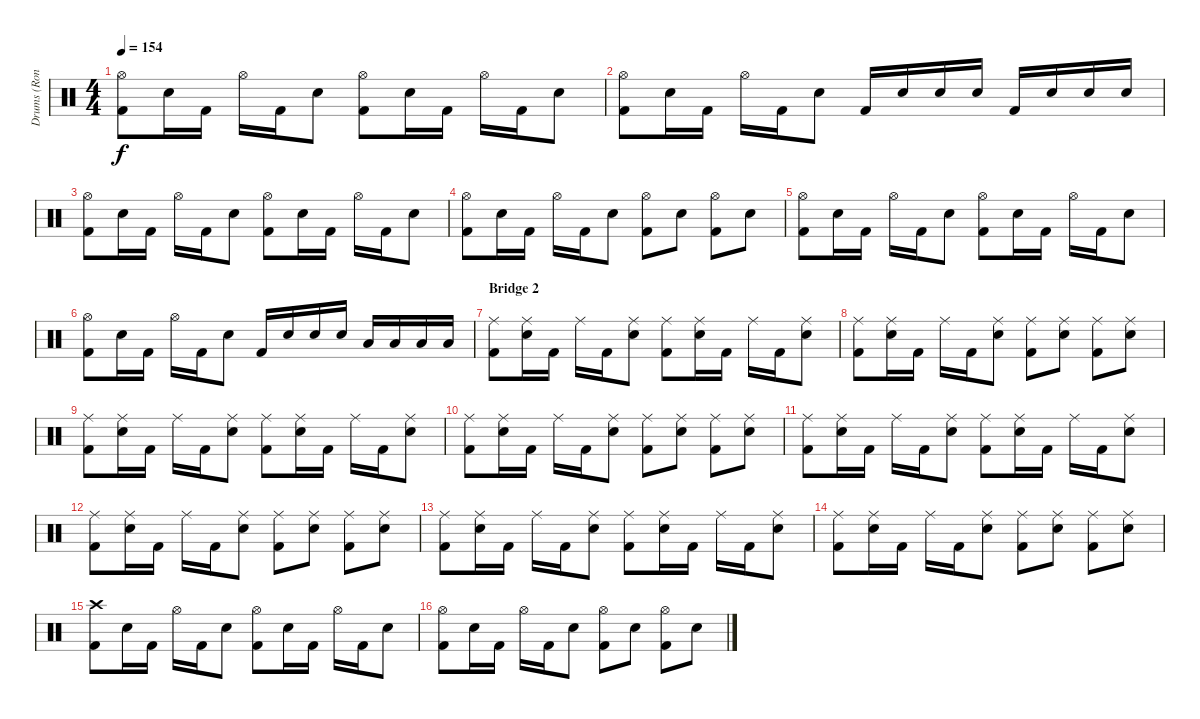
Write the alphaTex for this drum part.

\track ("Drums (Ron Welty)" "Drums (Ron") {instrument percussion}
\staff {score}
\articulation defaults
\ts (4 4)
\tempo 154
\clef neutral
\ks c
("Hi-Hat (open)" "Kick (hit) 2").8{dy f} "Electric Snare (hit)".16 "Kick (hit) 2".16 "Hi-Hat (open)".16 "Kick (hit) 2".16 "Electric Snare (hit)".8 ("Hi-Hat (open)" "Kick (hit) 2").8 "Electric Snare (hit)".16 "Kick (hit) 2".16 "Hi-Hat (open)".16 "Kick (hit) 2".16 "Electric Snare (hit)".8 |
("Hi-Hat (open)" "Kick (hit) 2").8 "Electric Snare (hit)".16 "Kick (hit) 2".16 "Hi-Hat (open)".16 "Kick (hit) 2".16 "Electric Snare (hit)".8 "Kick (hit) 2".16 "Electric Snare (hit)".16 "Electric Snare (hit)".16 "Electric Snare (hit)".16 "Kick (hit) 2".16 "Electric Snare (hit)".16 "Electric Snare (hit)".16 "Electric Snare (hit)".16 |
("Hi-Hat (open)" "Kick (hit) 2").8 "Electric Snare (hit)".16 "Kick (hit) 2".16 "Hi-Hat (open)".16 "Kick (hit) 2".16 "Electric Snare (hit)".8 ("Hi-Hat (open)" "Kick (hit) 2").8 "Electric Snare (hit)".16 "Kick (hit) 2".16 "Hi-Hat (open)".16 "Kick (hit) 2".16 "Electric Snare (hit)".8 |
("Hi-Hat (open)" "Kick (hit) 2").8 "Electric Snare (hit)".16 "Kick (hit) 2".16 "Hi-Hat (open)".16 "Kick (hit) 2".16 "Electric Snare (hit)".8 ("Hi-Hat (open)" "Kick (hit) 2").8 "Electric Snare (hit)".8 ("Hi-Hat (open)" "Kick (hit) 2").8 "Electric Snare (hit)".8 |
("Hi-Hat (open)" "Kick (hit) 2").8 "Electric Snare (hit)".16 "Kick (hit) 2".16 "Hi-Hat (open)".16 "Kick (hit) 2".16 "Electric Snare (hit)".8 ("Hi-Hat (open)" "Kick (hit) 2").8 "Electric Snare (hit)".16 "Kick (hit) 2".16 "Hi-Hat (open)".16 "Kick (hit) 2".16 "Electric Snare (hit)".8 |
("Hi-Hat (open)" "Kick (hit) 2").8 "Electric Snare (hit)".16 "Kick (hit) 2".16 "Hi-Hat (open)".16 "Kick (hit) 2".16 "Electric Snare (hit)".8 "Kick (hit) 2".16 "Electric Snare (hit)".16 "Electric Snare (hit)".16 "Electric Snare (hit)".16 "Low Tom (hit)".16 "Low Tom (hit)".16 "Low Floor Tom (hit)".16 "Low Floor Tom (hit)".16 |
\section ("" "Bridge 2")
("Ride (middle)" "Kick (hit) 2").8 ("Ride (middle)" "Electric Snare (hit)").16 "Kick (hit) 2".16 "Ride (middle)".16 "Kick (hit) 2".16 ("Ride (middle)" "Electric Snare (hit)").8 ("Ride (middle)" "Kick (hit) 2").8 ("Ride (middle)" "Electric Snare (hit)").16 "Kick (hit) 2".16 "Ride (middle)".16 "Kick (hit) 2".16 ("Ride (middle)" "Electric Snare (hit)").8 |
("Ride (middle)" "Kick (hit) 2").8 ("Ride (middle)" "Electric Snare (hit)").16 "Kick (hit) 2".16 "Ride (middle)".16 "Kick (hit) 2".16 ("Ride (middle)" "Electric Snare (hit)").8 ("Ride (middle)" "Kick (hit) 2").8 ("Ride (middle)" "Electric Snare (hit)").8 ("Ride (middle)" "Kick (hit) 2").8 ("Ride (middle)" "Electric Snare (hit)").8 |
("Ride (middle)" "Kick (hit) 2").8 ("Ride (middle)" "Electric Snare (hit)").16 "Kick (hit) 2".16 "Ride (middle)".16 "Kick (hit) 2".16 ("Ride (middle)" "Electric Snare (hit)").8 ("Ride (middle)" "Kick (hit) 2").8 ("Ride (middle)" "Electric Snare (hit)").16 "Kick (hit) 2".16 "Ride (middle)".16 "Kick (hit) 2".16 ("Ride (middle)" "Electric Snare (hit)").8 |
("Ride (middle)" "Kick (hit) 2").8 ("Ride (middle)" "Electric Snare (hit)").16 "Kick (hit) 2".16 "Ride (middle)".16 "Kick (hit) 2".16 ("Ride (middle)" "Electric Snare (hit)").8 ("Ride (middle)" "Kick (hit) 2").8 ("Ride (middle)" "Electric Snare (hit)").8 ("Ride (middle)" "Kick (hit) 2").8 ("Ride (middle)" "Electric Snare (hit)").8 |
("Ride (middle)" "Kick (hit) 2").8 ("Ride (middle)" "Electric Snare (hit)").16 "Kick (hit) 2".16 "Ride (middle)".16 "Kick (hit) 2".16 ("Ride (middle)" "Electric Snare (hit)").8 ("Ride (middle)" "Kick (hit) 2").8 ("Ride (middle)" "Electric Snare (hit)").16 "Kick (hit) 2".16 "Ride (middle)".16 "Kick (hit) 2".16 ("Ride (middle)" "Electric Snare (hit)").8 |
("Ride (middle)" "Kick (hit) 2").8 ("Ride (middle)" "Electric Snare (hit)").16 "Kick (hit) 2".16 "Ride (middle)".16 "Kick (hit) 2".16 ("Ride (middle)" "Electric Snare (hit)").8 ("Ride (middle)" "Kick (hit) 2").8 ("Ride (middle)" "Electric Snare (hit)").8 ("Ride (middle)" "Kick (hit) 2").8 ("Ride (middle)" "Electric Snare (hit)").8 |
("Ride (middle)" "Kick (hit) 2").8 ("Ride (middle)" "Electric Snare (hit)").16 "Kick (hit) 2".16 "Ride (middle)".16 "Kick (hit) 2".16 ("Ride (middle)" "Electric Snare (hit)").8 ("Ride (middle)" "Kick (hit) 2").8 ("Ride (middle)" "Electric Snare (hit)").16 "Kick (hit) 2".16 "Ride (middle)".16 "Kick (hit) 2".16 ("Ride (middle)" "Electric Snare (hit)").8 |
("Ride (middle)" "Kick (hit) 2").8 ("Ride (middle)" "Electric Snare (hit)").16 "Kick (hit) 2".16 "Ride (middle)".16 "Kick (hit) 2".16 ("Ride (middle)" "Electric Snare (hit)").8 ("Ride (middle)" "Kick (hit) 2").8 ("Ride (middle)" "Electric Snare (hit)").8 ("Ride (middle)" "Kick (hit) 2").8 ("Ride (middle)" "Electric Snare (hit)").8 |
("Crash high (hit)" "Kick (hit) 2").8 "Electric Snare (hit)".16 "Kick (hit) 2".16 "Hi-Hat (open)".16 "Kick (hit) 2".16 "Electric Snare (hit)".8 ("Hi-Hat (open)" "Kick (hit) 2").8 "Electric Snare (hit)".16 "Kick (hit) 2".16 "Hi-Hat (open)".16 "Kick (hit) 2".16 "Electric Snare (hit)".8 |
("Hi-Hat (open)" "Kick (hit) 2").8 "Electric Snare (hit)".16 "Kick (hit) 2".16 "Hi-Hat (open)".16 "Kick (hit) 2".16 "Electric Snare (hit)".8 ("Hi-Hat (open)" "Kick (hit) 2").8 "Electric Snare (hit)".8 ("Hi-Hat (open)" "Kick (hit) 2").8 "Electric Snare (hit)".8
